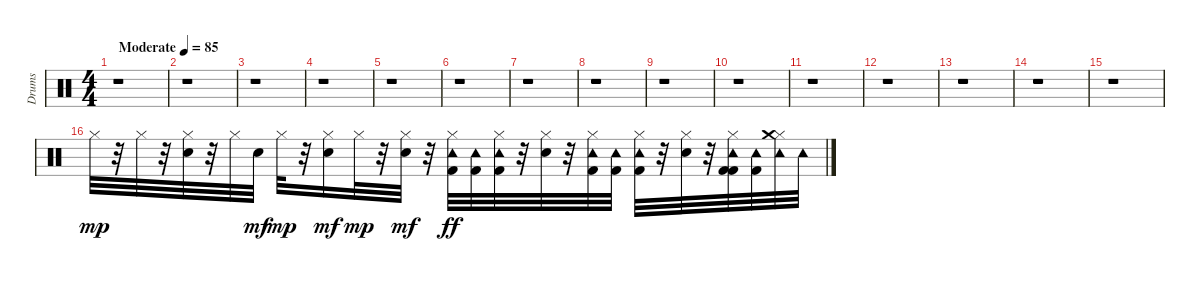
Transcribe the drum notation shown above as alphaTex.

\track ("Drums" "Drums") {instrument percussion}
\staff {score}
\articulation defaults
\ts (4 4)
\tempo (85 "Moderate")
\clef neutral
\ks c
r.1{dy mp} |
r.1 |
r.1 |
r.1 |
r.1 |
r.1 |
r.1 |
r.1 |
r.1 |
r.1 |
r.1 |
r.1 |
r.1 |
r.1 |
r.1 |
"Hi-Hat (closed)".32 r.32 "Hi-Hat (closed)".32 r.32 ("Hi-Hat (closed)" "Electric Snare (hit)").32 r.32 "Hi-Hat (closed)".32 "Electric Snare (hit)".32{dy mf} "Hi-Hat (closed)".32{dy mp} r.32 ("Electric Snare (hit)" "Hi-Hat (closed)").16{dy mf} "Hi-Hat (closed)".32{dy mp} r.32 ("Electric Snare (hit)" "Hi-Hat (closed)").32{dy mf} r.32 ("Hi-Hat (closed)" "Kick (hit) 2" "Tambourine (hit)").32{dy ff} ("Kick (hit) 2" "Tambourine (hit)").32 ("Hi-Hat (closed)" "Kick (hit) 2" "Tambourine (hit)").32 r.32 ("Hi-Hat (closed)" "Electric Snare (hit)").32 r.32 ("Hi-Hat (closed)" "Kick (hit) 2" "Tambourine (hit)").32 ("Kick (hit) 2" "Tambourine (hit)").32 ("Hi-Hat (closed)" "Kick (hit) 2" "Tambourine (hit)").32 r.32 ("Hi-Hat (closed)" "Electric Snare (hit)").32 r.32 ("Hi-Hat (closed)" "Kick (hit) 2" "Kick (hit) 2" "Tambourine (hit)").32 ("Kick (hit) 2" "Tambourine (hit)").32 ("Hi-Hat (closed)" "Tambourine (hit)" "Crash medium (hit)").32 "Tambourine (hit)".32
